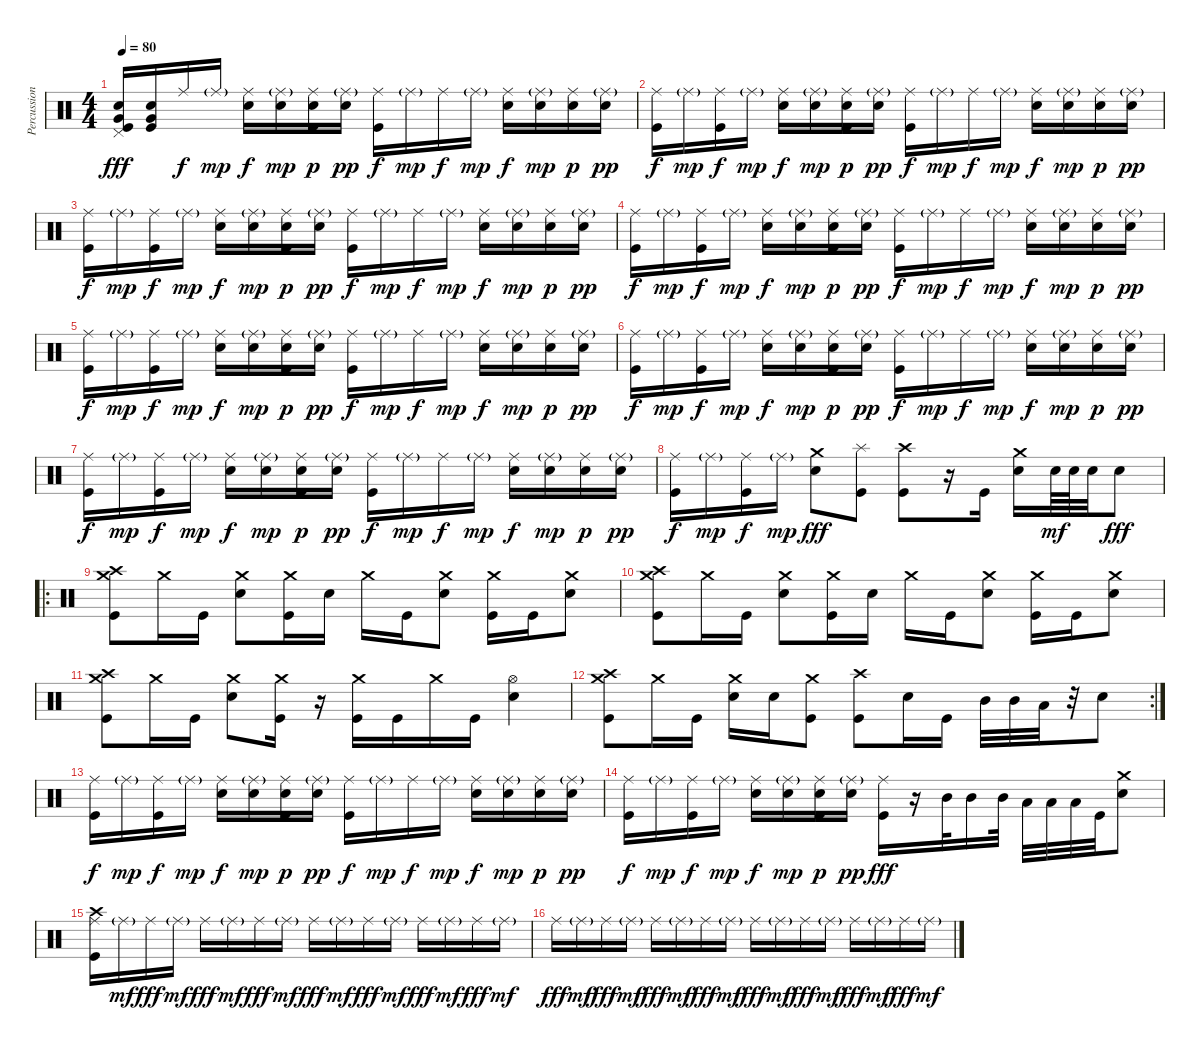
\track ("Percussion" "Percussion") {instrument percussion}
\staff {score}
\articulation defaults
\ts (4 4)
\tempo 80
\clef neutral
\ks c
("Pedal Hi-Hat (hit)" "Very Low Tom (hit)" "Electric Snare (hit)" "Kick (hit)").16{dy fff} ("Very Low Tom (hit)" "Electric Snare (hit)" "Kick (hit)").16 "Ride (middle)".16{dy f} "Ride (middle)"{g}.16{dy mp} ("Ride (middle)" "Electric Snare (hit)").16{dy f} ("Ride (middle)"{g} "Electric Snare (hit)").16{dy mp} ("Ride (middle)" "Electric Snare (hit)" "Kick (hit)").16{dy p} ("Ride (middle)"{g} "Electric Snare (hit)").16{dy pp} ("Ride (middle)" "Kick (hit)").16{dy f} "Ride (middle)"{g}.16{dy mp} "Ride (middle)".16{dy f} "Ride (middle)"{g}.16{dy mp} ("Ride (middle)" "Electric Snare (hit)").16{dy f} ("Ride (middle)"{g} "Electric Snare (hit)").16{dy mp} ("Ride (middle)" "Electric Snare (hit)").16{dy p} ("Ride (middle)"{g} "Electric Snare (hit)").16{dy pp} |
("Ride (middle)" "Kick (hit)").16{dy f} "Ride (middle)"{g}.16{dy mp} ("Ride (middle)" "Kick (hit)").16{dy f} "Ride (middle)"{g}.16{dy mp} ("Ride (middle)" "Electric Snare (hit)").16{dy f} ("Ride (middle)"{g} "Electric Snare (hit)").16{dy mp} ("Ride (middle)" "Electric Snare (hit)" "Kick (hit)").16{dy p} ("Ride (middle)"{g} "Electric Snare (hit)").16{dy pp} ("Ride (middle)" "Kick (hit)").16{dy f} "Ride (middle)"{g}.16{dy mp} "Ride (middle)".16{dy f} "Ride (middle)"{g}.16{dy mp} ("Ride (middle)" "Electric Snare (hit)").16{dy f} ("Ride (middle)"{g} "Electric Snare (hit)").16{dy mp} ("Ride (middle)" "Electric Snare (hit)").16{dy p} ("Ride (middle)"{g} "Electric Snare (hit)").16{dy pp} |
("Ride (middle)" "Kick (hit)").16{dy f} "Ride (middle)"{g}.16{dy mp} ("Ride (middle)" "Kick (hit)").16{dy f} "Ride (middle)"{g}.16{dy mp} ("Ride (middle)" "Electric Snare (hit)").16{dy f} ("Ride (middle)"{g} "Electric Snare (hit)").16{dy mp} ("Ride (middle)" "Electric Snare (hit)" "Kick (hit)").16{dy p} ("Ride (middle)"{g} "Electric Snare (hit)").16{dy pp} ("Ride (middle)" "Kick (hit)").16{dy f} "Ride (middle)"{g}.16{dy mp} "Ride (middle)".16{dy f} "Ride (middle)"{g}.16{dy mp} ("Ride (middle)" "Electric Snare (hit)").16{dy f} ("Ride (middle)"{g} "Electric Snare (hit)").16{dy mp} ("Ride (middle)" "Electric Snare (hit)").16{dy p} ("Ride (middle)"{g} "Electric Snare (hit)").16{dy pp} |
("Ride (middle)" "Kick (hit)").16{dy f} "Ride (middle)"{g}.16{dy mp} ("Ride (middle)" "Kick (hit)").16{dy f} "Ride (middle)"{g}.16{dy mp} ("Ride (middle)" "Electric Snare (hit)").16{dy f} ("Ride (middle)"{g} "Electric Snare (hit)").16{dy mp} ("Ride (middle)" "Electric Snare (hit)" "Kick (hit)").16{dy p} ("Ride (middle)"{g} "Electric Snare (hit)").16{dy pp} ("Ride (middle)" "Kick (hit)").16{dy f} "Ride (middle)"{g}.16{dy mp} "Ride (middle)".16{dy f} "Ride (middle)"{g}.16{dy mp} ("Ride (middle)" "Electric Snare (hit)").16{dy f} ("Ride (middle)"{g} "Electric Snare (hit)").16{dy mp} ("Ride (middle)" "Electric Snare (hit)").16{dy p} ("Ride (middle)"{g} "Electric Snare (hit)").16{dy pp} |
("Ride (middle)" "Kick (hit)").16{dy f} "Ride (middle)"{g}.16{dy mp} ("Ride (middle)" "Kick (hit)").16{dy f} "Ride (middle)"{g}.16{dy mp} ("Ride (middle)" "Electric Snare (hit)").16{dy f} ("Ride (middle)"{g} "Electric Snare (hit)").16{dy mp} ("Ride (middle)" "Electric Snare (hit)" "Kick (hit)").16{dy p} ("Ride (middle)"{g} "Electric Snare (hit)").16{dy pp} ("Ride (middle)" "Kick (hit)").16{dy f} "Ride (middle)"{g}.16{dy mp} "Ride (middle)".16{dy f} "Ride (middle)"{g}.16{dy mp} ("Ride (middle)" "Electric Snare (hit)").16{dy f} ("Ride (middle)"{g} "Electric Snare (hit)").16{dy mp} ("Ride (middle)" "Electric Snare (hit)").16{dy p} ("Ride (middle)"{g} "Electric Snare (hit)").16{dy pp} |
("Ride (middle)" "Kick (hit)").16{dy f} "Ride (middle)"{g}.16{dy mp} ("Ride (middle)" "Kick (hit)").16{dy f} "Ride (middle)"{g}.16{dy mp} ("Ride (middle)" "Electric Snare (hit)").16{dy f} ("Ride (middle)"{g} "Electric Snare (hit)").16{dy mp} ("Ride (middle)" "Electric Snare (hit)" "Kick (hit)").16{dy p} ("Ride (middle)"{g} "Electric Snare (hit)").16{dy pp} ("Ride (middle)" "Kick (hit)").16{dy f} "Ride (middle)"{g}.16{dy mp} "Ride (middle)".16{dy f} "Ride (middle)"{g}.16{dy mp} ("Ride (middle)" "Electric Snare (hit)").16{dy f} ("Ride (middle)"{g} "Electric Snare (hit)").16{dy mp} ("Ride (middle)" "Electric Snare (hit)").16{dy p} ("Ride (middle)"{g} "Electric Snare (hit)").16{dy pp} |
("Ride (middle)" "Kick (hit)").16{dy f} "Ride (middle)"{g}.16{dy mp} ("Ride (middle)" "Kick (hit)").16{dy f} "Ride (middle)"{g}.16{dy mp} ("Ride (middle)" "Electric Snare (hit)").16{dy f} ("Ride (middle)"{g} "Electric Snare (hit)").16{dy mp} ("Ride (middle)" "Electric Snare (hit)" "Kick (hit)").16{dy p} ("Ride (middle)"{g} "Electric Snare (hit)").16{dy pp} ("Ride (middle)" "Kick (hit)").16{dy f} "Ride (middle)"{g}.16{dy mp} "Ride (middle)".16{dy f} "Ride (middle)"{g}.16{dy mp} ("Ride (middle)" "Electric Snare (hit)").16{dy f} ("Ride (middle)"{g} "Electric Snare (hit)").16{dy mp} ("Ride (middle)" "Electric Snare (hit)").16{dy p} ("Ride (middle)"{g} "Electric Snare (hit)").16{dy pp} |
("Ride (middle)" "Kick (hit)").16{dy f} "Ride (middle)"{g}.16{dy mp} ("Ride (middle)" "Kick (hit)").16{dy f} "Ride (middle)"{g}.16{dy mp} ("Crash medium (hit)" "Electric Snare (hit)").8{dy fff} ("Splash (hit)" "Kick (hit)").8 ("Crash high (hit)" "Kick (hit)").8 r.16 "Kick (hit)".16 ("Crash medium (hit)" "Electric Snare (hit)").16 "Electric Snare (hit)".64{dy mf} "Electric Snare (hit)".64 "Electric Snare (hit)".32 "Electric Snare (hit)".8{dy fff} |
\ro
("Crash medium (hit)" "Crash high (hit)" "Kick (hit)").8 "Crash medium (hit)".16 "Kick (hit)".16 ("Crash medium (hit)" "Electric Snare (hit)").8 ("Crash medium (hit)" "Kick (hit)").16 "Electric Snare (hit)".16 "Crash medium (hit)".16 "Kick (hit)".16 ("Crash medium (hit)" "Electric Snare (hit)").8 ("Crash medium (hit)" "Kick (hit)").16 "Kick (hit)".16 ("Crash medium (hit)" "Electric Snare (hit)").8 |
("Crash medium (hit)" "Crash high (hit)" "Kick (hit)").8 "Crash medium (hit)".16 "Kick (hit)".16 ("Crash medium (hit)" "Electric Snare (hit)").8 ("Crash medium (hit)" "Kick (hit)").16 "Electric Snare (hit)".16 "Crash medium (hit)".16 "Kick (hit)".16 ("Crash medium (hit)" "Electric Snare (hit)").8 ("Crash medium (hit)" "Kick (hit)").16 "Kick (hit)".16 ("Crash medium (hit)" "Electric Snare (hit)").8 |
("Crash medium (hit)" "Crash high (hit)" "Kick (hit)").8 "Crash medium (hit)".16 "Kick (hit)".16 ("Crash medium (hit)" "Electric Snare (hit)").8 ("Crash medium (hit)" "Kick (hit)").16 r.16 ("Crash medium (hit)" "Kick (hit)").16 "Kick (hit)".16 "Crash medium (hit)".16 "Kick (hit)".16 ("Hi-Hat (open)" "Electric Snare (hit)").4 |
\rc 2
("Crash medium (hit)" "Crash high (hit)" "Kick (hit)").8 "Crash medium (hit)".16 "Kick (hit)".16 ("Crash medium (hit)" "Electric Snare (hit)").16 "Electric Snare (hit)".16 ("Crash medium (hit)" "Kick (hit)").8 ("Crash high (hit)" "Kick (hit)").8 "Electric Snare (hit)".16 "Kick (hit)".16 "Mid Tom (hit)".32 "Mid Tom (hit)".32 "Low Tom (hit)".32 r.32 "Electric Snare (hit)".8 |
("Ride (middle)" "Kick (hit)").16{dy f} "Ride (middle)"{g}.16{dy mp} ("Ride (middle)" "Kick (hit)").16{dy f} "Ride (middle)"{g}.16{dy mp} ("Ride (middle)" "Electric Snare (hit)").16{dy f} ("Ride (middle)"{g} "Electric Snare (hit)").16{dy mp} ("Ride (middle)" "Electric Snare (hit)" "Kick (hit)").16{dy p} ("Ride (middle)"{g} "Electric Snare (hit)").16{dy pp} ("Ride (middle)" "Kick (hit)").16{dy f} "Ride (middle)"{g}.16{dy mp} "Ride (middle)".16{dy f} "Ride (middle)"{g}.16{dy mp} ("Ride (middle)" "Electric Snare (hit)").16{dy f} ("Ride (middle)"{g} "Electric Snare (hit)").16{dy mp} ("Ride (middle)" "Electric Snare (hit)").16{dy p} ("Ride (middle)"{g} "Electric Snare (hit)").16{dy pp} |
("Ride (middle)" "Kick (hit)").16{dy f} "Ride (middle)"{g}.16{dy mp} ("Ride (middle)" "Kick (hit)").16{dy f} "Ride (middle)"{g}.16{dy mp} ("Ride (middle)" "Electric Snare (hit)").16{dy f} ("Ride (middle)"{g} "Electric Snare (hit)").16{dy mp} ("Ride (middle)" "Electric Snare (hit)" "Kick (hit)").16{dy p} ("Ride (middle)"{g} "Electric Snare (hit)").16{dy pp} ("Ride (middle)" "Kick (hit)").16{dy fff} r.16 "Mid Tom (hit)".32 "Mid Tom (hit)".16 "Mid Tom (hit)".32 "Low Tom (hit)".32 "Low Tom (hit)".32 "Low Tom (hit)".32 "Kick (hit)".32 ("Crash medium (hit)" "Electric Snare (hit)").8 |
("Ride (middle)" "Crash high (hit)" "Kick (hit)").16 "Ride (middle)"{g}.16{dy mf} "Ride (middle)".16{dy fff} "Ride (middle)"{g}.16{dy mf} "Ride (middle)".16{dy fff} "Ride (middle)"{g}.16{dy mf} "Ride (middle)".16{dy fff} "Ride (middle)"{g}.16{dy mf} "Ride (middle)".16{dy fff} "Ride (middle)"{g}.16{dy mf} "Ride (middle)".16{dy fff} "Ride (middle)"{g}.16{dy mf} "Ride (middle)".16{dy fff} "Ride (middle)"{g}.16{dy mf} "Ride (middle)".16{dy fff} "Ride (middle)"{g}.16{dy mf} |
"Ride (middle)".16{dy fff} "Ride (middle)"{g}.16{dy mf} "Ride (middle)".16{dy fff} "Ride (middle)"{g}.16{dy mf} "Ride (middle)".16{dy fff} "Ride (middle)"{g}.16{dy mf} "Ride (middle)".16{dy fff} "Ride (middle)"{g}.16{dy mf} "Ride (middle)".16{dy fff} "Ride (middle)"{g}.16{dy mf} "Ride (middle)".16{dy fff} "Ride (middle)"{g}.16{dy mf} "Ride (middle)".16{dy fff} "Ride (middle)"{g}.16{dy mf} "Ride (middle)".16{dy fff} "Ride (middle)"{g}.16{dy mf}
